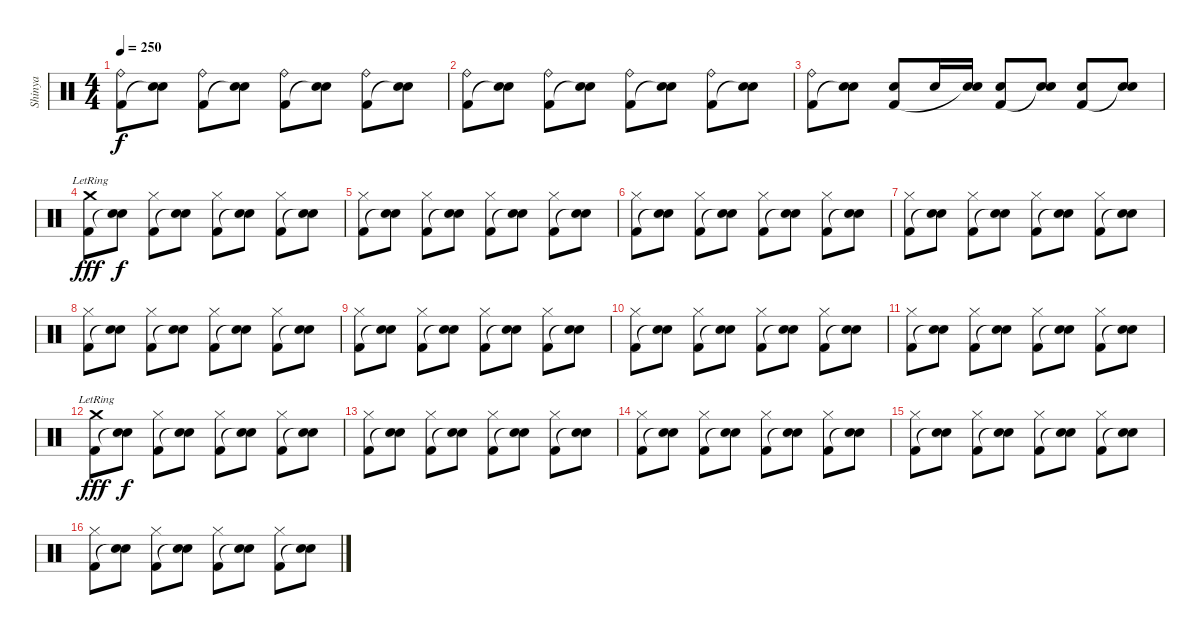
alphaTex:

\track ("Shinya" "Shinya") {instrument percussion}
\staff {score}
\articulation defaults
\ts (4 4)
\tempo 250
\clef neutral
\ks c
("Ride (bell)" "Kick (hit) 2").8{dy f} ("Electric Snare (hit)" "Snare (hit)"{t}).8 ("Ride (bell)" "Kick (hit) 2").8 ("Electric Snare (hit)" "Snare (hit)"{t}).8 ("Ride (bell)" "Kick (hit) 2").8 ("Electric Snare (hit)" "Snare (hit)"{t}).8 ("Ride (bell)" "Kick (hit) 2").8 ("Electric Snare (hit)" "Snare (hit)"{t}).8 |
("Ride (bell)" "Kick (hit) 2").8 ("Electric Snare (hit)" "Snare (hit)"{t}).8 ("Ride (bell)" "Kick (hit) 2").8 ("Electric Snare (hit)" "Snare (hit)"{t}).8 ("Ride (bell)" "Kick (hit) 2").8 ("Electric Snare (hit)" "Snare (hit)"{t}).8 ("Ride (bell)" "Kick (hit) 2").8 ("Electric Snare (hit)" "Snare (hit)"{t}).8 |
("Ride (bell)" "Kick (hit) 2").8 ("Electric Snare (hit)" "Snare (hit)"{t}).8 ("Electric Snare (hit)" "Kick (hit) 2").8 "Electric Snare (hit)".16 ("Electric Snare (hit)" "Snare (hit)"{t}).16 ("Electric Snare (hit)" "Kick (hit) 2").8 ("Electric Snare (hit)" "Snare (hit)"{t}).8 ("Electric Snare (hit)" "Kick (hit) 2").8 ("Electric Snare (hit)" "Snare (hit)"{t}).8 |
("Crash medium (hit)"{lr} "Kick (hit) 2").8{dy fff} ("Electric Snare (hit)" "Snare (hit)"{t}).8{dy f} ("Hi-Hat (closed)" "Kick (hit) 2").8 ("Electric Snare (hit)" "Snare (hit)"{t}).8 ("Hi-Hat (closed)" "Kick (hit) 2").8 ("Electric Snare (hit)" "Snare (hit)"{t}).8 ("Hi-Hat (closed)" "Kick (hit) 2").8 ("Electric Snare (hit)" "Snare (hit)"{t}).8 |
("Hi-Hat (closed)" "Kick (hit) 2").8 ("Electric Snare (hit)" "Snare (hit)"{t}).8 ("Hi-Hat (closed)" "Kick (hit) 2").8 ("Electric Snare (hit)" "Snare (hit)"{t}).8 ("Hi-Hat (closed)" "Kick (hit) 2").8 ("Electric Snare (hit)" "Snare (hit)"{t}).8 ("Hi-Hat (closed)" "Kick (hit) 2").8 ("Electric Snare (hit)" "Snare (hit)"{t}).8 |
("Hi-Hat (closed)" "Kick (hit) 2").8 ("Electric Snare (hit)" "Snare (hit)"{t}).8 ("Hi-Hat (closed)" "Kick (hit) 2").8 ("Electric Snare (hit)" "Snare (hit)"{t}).8 ("Hi-Hat (closed)" "Kick (hit) 2").8 ("Electric Snare (hit)" "Snare (hit)"{t}).8 ("Hi-Hat (closed)" "Kick (hit) 2").8 ("Electric Snare (hit)" "Snare (hit)"{t}).8 |
("Hi-Hat (closed)" "Kick (hit) 2").8 ("Electric Snare (hit)" "Snare (hit)"{t}).8 ("Hi-Hat (closed)" "Kick (hit) 2").8 ("Electric Snare (hit)" "Snare (hit)"{t}).8 ("Hi-Hat (closed)" "Kick (hit) 2").8 ("Electric Snare (hit)" "Snare (hit)"{t}).8 ("Hi-Hat (closed)" "Kick (hit) 2").8 ("Electric Snare (hit)" "Snare (hit)"{t}).8 |
("Hi-Hat (closed)" "Kick (hit) 2").8 ("Electric Snare (hit)" "Snare (hit)"{t}).8 ("Hi-Hat (closed)" "Kick (hit) 2").8 ("Electric Snare (hit)" "Snare (hit)"{t}).8 ("Hi-Hat (closed)" "Kick (hit) 2").8 ("Electric Snare (hit)" "Snare (hit)"{t}).8 ("Hi-Hat (closed)" "Kick (hit) 2").8 ("Electric Snare (hit)" "Snare (hit)"{t}).8 |
("Hi-Hat (closed)" "Kick (hit) 2").8 ("Electric Snare (hit)" "Snare (hit)"{t}).8 ("Hi-Hat (closed)" "Kick (hit) 2").8 ("Electric Snare (hit)" "Snare (hit)"{t}).8 ("Hi-Hat (closed)" "Kick (hit) 2").8 ("Electric Snare (hit)" "Snare (hit)"{t}).8 ("Hi-Hat (closed)" "Kick (hit) 2").8 ("Electric Snare (hit)" "Snare (hit)"{t}).8 |
("Hi-Hat (closed)" "Kick (hit) 2").8 ("Electric Snare (hit)" "Snare (hit)"{t}).8 ("Hi-Hat (closed)" "Kick (hit) 2").8 ("Electric Snare (hit)" "Snare (hit)"{t}).8 ("Hi-Hat (closed)" "Kick (hit) 2").8 ("Electric Snare (hit)" "Snare (hit)"{t}).8 ("Hi-Hat (closed)" "Kick (hit) 2").8 ("Electric Snare (hit)" "Snare (hit)"{t}).8 |
("Hi-Hat (closed)" "Kick (hit) 2").8 ("Electric Snare (hit)" "Snare (hit)"{t}).8 ("Hi-Hat (closed)" "Kick (hit) 2").8 ("Electric Snare (hit)" "Snare (hit)"{t}).8 ("Hi-Hat (closed)" "Kick (hit) 2").8 ("Electric Snare (hit)" "Snare (hit)"{t}).8 ("Hi-Hat (closed)" "Kick (hit) 2").8 ("Electric Snare (hit)" "Snare (hit)"{t}).8 |
("Crash medium (hit)"{lr} "Kick (hit) 2").8{dy fff} ("Electric Snare (hit)" "Snare (hit)"{t}).8{dy f} ("Hi-Hat (closed)" "Kick (hit) 2").8 ("Electric Snare (hit)" "Snare (hit)"{t}).8 ("Hi-Hat (closed)" "Kick (hit) 2").8 ("Electric Snare (hit)" "Snare (hit)"{t}).8 ("Hi-Hat (closed)" "Kick (hit) 2").8 ("Electric Snare (hit)" "Snare (hit)"{t}).8 |
("Hi-Hat (closed)" "Kick (hit) 2").8 ("Electric Snare (hit)" "Snare (hit)"{t}).8 ("Hi-Hat (closed)" "Kick (hit) 2").8 ("Electric Snare (hit)" "Snare (hit)"{t}).8 ("Hi-Hat (closed)" "Kick (hit) 2").8 ("Electric Snare (hit)" "Snare (hit)"{t}).8 ("Hi-Hat (closed)" "Kick (hit) 2").8 ("Electric Snare (hit)" "Snare (hit)"{t}).8 |
("Hi-Hat (closed)" "Kick (hit) 2").8 ("Electric Snare (hit)" "Snare (hit)"{t}).8 ("Hi-Hat (closed)" "Kick (hit) 2").8 ("Electric Snare (hit)" "Snare (hit)"{t}).8 ("Hi-Hat (closed)" "Kick (hit) 2").8 ("Electric Snare (hit)" "Snare (hit)"{t}).8 ("Hi-Hat (closed)" "Kick (hit) 2").8 ("Electric Snare (hit)" "Snare (hit)"{t}).8 |
("Hi-Hat (closed)" "Kick (hit) 2").8 ("Electric Snare (hit)" "Snare (hit)"{t}).8 ("Hi-Hat (closed)" "Kick (hit) 2").8 ("Electric Snare (hit)" "Snare (hit)"{t}).8 ("Hi-Hat (closed)" "Kick (hit) 2").8 ("Electric Snare (hit)" "Snare (hit)"{t}).8 ("Hi-Hat (closed)" "Kick (hit) 2").8 ("Electric Snare (hit)" "Snare (hit)"{t}).8 |
("Hi-Hat (closed)" "Kick (hit) 2").8 ("Electric Snare (hit)" "Snare (hit)"{t}).8 ("Hi-Hat (closed)" "Kick (hit) 2").8 ("Electric Snare (hit)" "Snare (hit)"{t}).8 ("Hi-Hat (closed)" "Kick (hit) 2").8 ("Electric Snare (hit)" "Snare (hit)"{t}).8 ("Hi-Hat (closed)" "Kick (hit) 2").8 ("Electric Snare (hit)" "Snare (hit)"{t}).8
